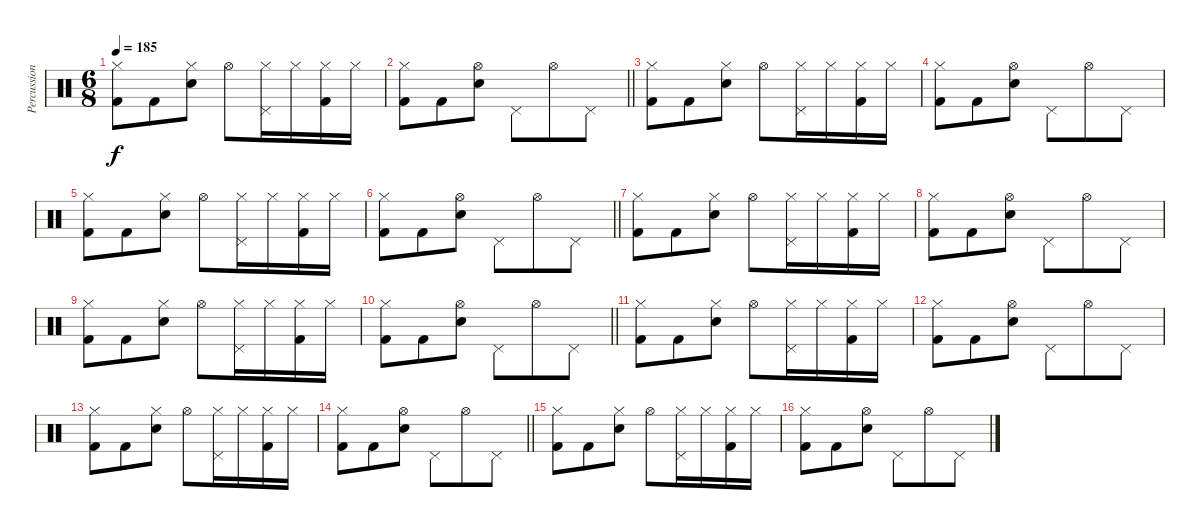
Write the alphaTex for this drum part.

\track ("Percussion" "Percussion") {instrument percussion}
\staff {score}
\articulation defaults
\ts (6 8)
\tempo 185
\clef neutral
\ks c
("Hi-Hat (closed)" "Kick (hit) 2").8{dy f} "Kick (hit) 2".8 ("Hi-Hat (closed)" "Snare (hit) 2").8 "Hi-Hat (open)".8 ("Hi-Hat (closed)" "Pedal Hi-Hat (hit)").16 "Hi-Hat (closed)".16 ("Hi-Hat (closed)" "Kick (hit) 2").16 "Hi-Hat (closed)".16 |
\barLineRight lightlight
("Hi-Hat (closed)" "Kick (hit) 2").8 "Kick (hit) 2".8 ("Hi-Hat (open)" "Snare (hit) 2").8 "Pedal Hi-Hat (hit)".8 "Hi-Hat (open)".8 "Pedal Hi-Hat (hit)".8 |
("Hi-Hat (closed)" "Kick (hit) 2").8 "Kick (hit) 2".8 ("Hi-Hat (closed)" "Snare (hit) 2").8 "Hi-Hat (open)".8 ("Hi-Hat (closed)" "Pedal Hi-Hat (hit)").16 "Hi-Hat (closed)".16 ("Hi-Hat (closed)" "Kick (hit) 2").16 "Hi-Hat (closed)".16 |
("Hi-Hat (closed)" "Kick (hit) 2").8 "Kick (hit) 2".8 ("Hi-Hat (open)" "Snare (hit) 2").8 "Pedal Hi-Hat (hit)".8 "Hi-Hat (open)".8 "Pedal Hi-Hat (hit)".8 |
("Hi-Hat (closed)" "Kick (hit) 2").8 "Kick (hit) 2".8 ("Hi-Hat (closed)" "Snare (hit) 2").8 "Hi-Hat (open)".8 ("Hi-Hat (closed)" "Pedal Hi-Hat (hit)").16 "Hi-Hat (closed)".16 ("Hi-Hat (closed)" "Kick (hit) 2").16 "Hi-Hat (closed)".16 |
\barLineRight lightlight
("Hi-Hat (closed)" "Kick (hit) 2").8 "Kick (hit) 2".8 ("Hi-Hat (open)" "Snare (hit) 2").8 "Pedal Hi-Hat (hit)".8 "Hi-Hat (open)".8 "Pedal Hi-Hat (hit)".8 |
("Hi-Hat (closed)" "Kick (hit) 2").8 "Kick (hit) 2".8 ("Hi-Hat (closed)" "Snare (hit) 2").8 "Hi-Hat (open)".8 ("Hi-Hat (closed)" "Pedal Hi-Hat (hit)").16 "Hi-Hat (closed)".16 ("Hi-Hat (closed)" "Kick (hit) 2").16 "Hi-Hat (closed)".16 |
("Hi-Hat (closed)" "Kick (hit) 2").8 "Kick (hit) 2".8 ("Hi-Hat (open)" "Snare (hit) 2").8 "Pedal Hi-Hat (hit)".8 "Hi-Hat (open)".8 "Pedal Hi-Hat (hit)".8 |
("Hi-Hat (closed)" "Kick (hit) 2").8 "Kick (hit) 2".8 ("Hi-Hat (closed)" "Snare (hit) 2").8 "Hi-Hat (open)".8 ("Hi-Hat (closed)" "Pedal Hi-Hat (hit)").16 "Hi-Hat (closed)".16 ("Hi-Hat (closed)" "Kick (hit) 2").16 "Hi-Hat (closed)".16 |
\barLineRight lightlight
("Hi-Hat (closed)" "Kick (hit) 2").8 "Kick (hit) 2".8 ("Hi-Hat (open)" "Snare (hit) 2").8 "Pedal Hi-Hat (hit)".8 "Hi-Hat (open)".8 "Pedal Hi-Hat (hit)".8 |
("Hi-Hat (closed)" "Kick (hit) 2").8 "Kick (hit) 2".8 ("Hi-Hat (closed)" "Snare (hit) 2").8 "Hi-Hat (open)".8 ("Hi-Hat (closed)" "Pedal Hi-Hat (hit)").16 "Hi-Hat (closed)".16 ("Hi-Hat (closed)" "Kick (hit) 2").16 "Hi-Hat (closed)".16 |
("Hi-Hat (closed)" "Kick (hit) 2").8 "Kick (hit) 2".8 ("Hi-Hat (open)" "Snare (hit) 2").8 "Pedal Hi-Hat (hit)".8 "Hi-Hat (open)".8 "Pedal Hi-Hat (hit)".8 |
("Hi-Hat (closed)" "Kick (hit) 2").8 "Kick (hit) 2".8 ("Hi-Hat (closed)" "Snare (hit) 2").8 "Hi-Hat (open)".8 ("Hi-Hat (closed)" "Pedal Hi-Hat (hit)").16 "Hi-Hat (closed)".16 ("Hi-Hat (closed)" "Kick (hit) 2").16 "Hi-Hat (closed)".16 |
\barLineRight lightlight
("Hi-Hat (closed)" "Kick (hit) 2").8 "Kick (hit) 2".8 ("Hi-Hat (open)" "Snare (hit) 2").8 "Pedal Hi-Hat (hit)".8 "Hi-Hat (open)".8 "Pedal Hi-Hat (hit)".8 |
("Hi-Hat (closed)" "Kick (hit) 2").8 "Kick (hit) 2".8 ("Hi-Hat (closed)" "Snare (hit) 2").8 "Hi-Hat (open)".8 ("Hi-Hat (closed)" "Pedal Hi-Hat (hit)").16 "Hi-Hat (closed)".16 ("Hi-Hat (closed)" "Kick (hit) 2").16 "Hi-Hat (closed)".16 |
("Hi-Hat (closed)" "Kick (hit) 2").8 "Kick (hit) 2".8 ("Hi-Hat (open)" "Snare (hit) 2").8 "Pedal Hi-Hat (hit)".8 "Hi-Hat (open)".8 "Pedal Hi-Hat (hit)".8
